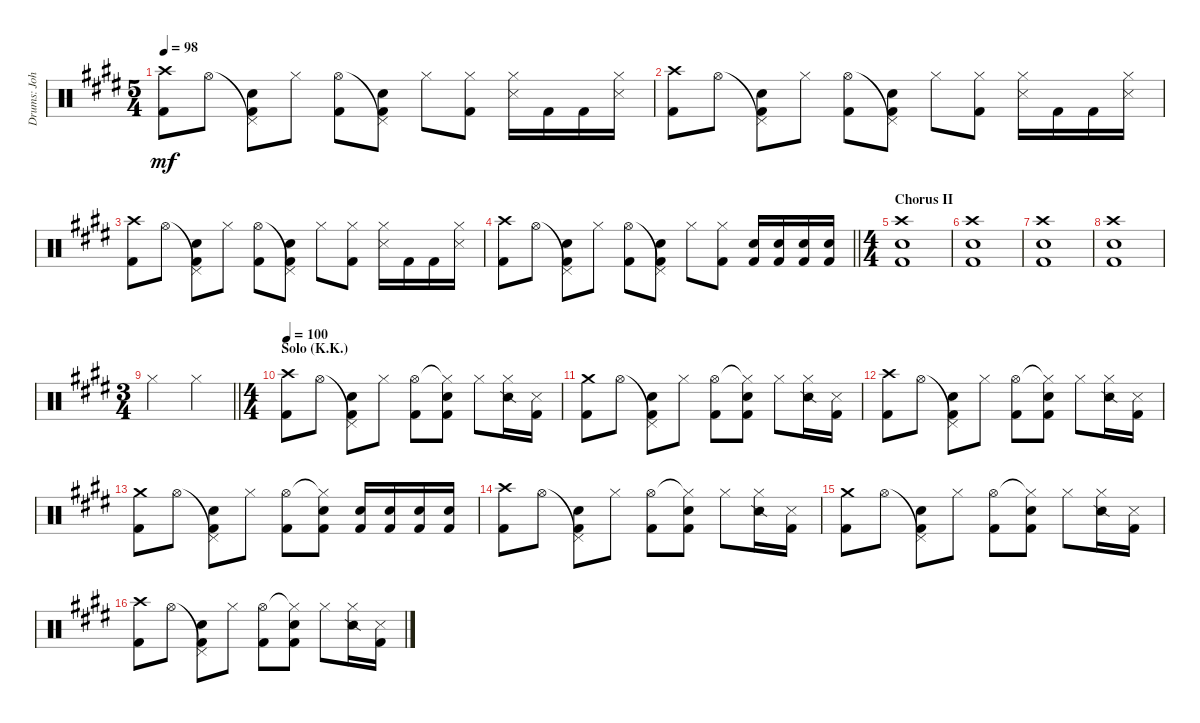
\track ("Drums: John" "Drums: Joh") {instrument percussion}
\staff {score}
\articulation defaults
\ts (5 4)
\tempo 98
\clef neutral
\ks e
("Crash high (hit)" "Kick (hit) 2").8{dy mf} "Hi-Hat (open)".8 ("Pedal Hi-Hat (hit)"{t} "Snare (hit) 2" "Kick (hit) 2").8 "Hi-Hat (closed)".8 ("Hi-Hat (open)" "Kick (hit) 2").8 ("Pedal Hi-Hat (hit)"{t} "Snare (hit) 2" "Kick (hit) 2").8 "Hi-Hat (closed)".8 ("Hi-Hat (closed)" "Kick (hit) 2").8 ("Hi-Hat (closed)" "Snare (side stick) 3").16 "Kick (hit) 2".16 "Kick (hit) 2".16 ("Hi-Hat (closed)" "Snare (side stick) 3").16 |
("Crash high (hit)" "Kick (hit) 2").8 "Hi-Hat (open)".8 ("Pedal Hi-Hat (hit)"{t} "Snare (hit) 2" "Kick (hit) 2").8 "Hi-Hat (closed)".8 ("Hi-Hat (open)" "Kick (hit) 2").8 ("Pedal Hi-Hat (hit)"{t} "Snare (hit) 2" "Kick (hit) 2").8 "Hi-Hat (closed)".8 ("Hi-Hat (closed)" "Kick (hit) 2").8 ("Hi-Hat (closed)" "Snare (side stick) 3").16 "Kick (hit) 2".16 "Kick (hit) 2".16 ("Hi-Hat (closed)" "Snare (side stick) 3").16 |
("Crash high (hit)" "Kick (hit) 2").8 "Hi-Hat (open)".8 ("Pedal Hi-Hat (hit)"{t} "Snare (hit) 2" "Kick (hit) 2").8 "Hi-Hat (closed)".8 ("Hi-Hat (open)" "Kick (hit) 2").8 ("Pedal Hi-Hat (hit)"{t} "Snare (hit) 2" "Kick (hit) 2").8 "Hi-Hat (closed)".8 ("Hi-Hat (closed)" "Kick (hit) 2").8 ("Hi-Hat (closed)" "Snare (side stick) 3").16 "Kick (hit) 2".16 "Kick (hit) 2".16 ("Hi-Hat (closed)" "Snare (side stick) 3").16 |
\barLineRight lightlight
("Crash high (hit)" "Kick (hit) 2").8 "Hi-Hat (open)".8 ("Pedal Hi-Hat (hit)"{t} "Snare (hit) 2" "Kick (hit) 2").8 "Hi-Hat (closed)".8 ("Hi-Hat (open)" "Kick (hit) 2").8 ("Pedal Hi-Hat (hit)"{t} "Snare (hit) 2" "Kick (hit) 2").8 "Hi-Hat (closed)".8 ("Hi-Hat (closed)" "Kick (hit) 2").8 ("Electric Snare (hit)" "Kick (hit) 2").16 ("Electric Snare (hit)" "Kick (hit) 2").16 ("Electric Snare (hit)" "Kick (hit) 2").16 ("Electric Snare (hit)" "Kick (hit) 2").16 |
\ts (4 4)
\section ("" "Chorus II")
("Crash high (hit)" "Snare (hit) 2" "Kick (hit) 2").1 |
("Crash high (hit)" "Snare (hit) 2" "Kick (hit) 2").1 |
("Crash high (hit)" "Snare (hit) 2" "Kick (hit) 2").1 |
("Crash high (hit)" "Snare (hit) 2" "Kick (hit) 2").1 |
\ts (3 4)
\barLineRight lightlight "Hi-Hat (closed)".2 "Hi-Hat (closed)".4
|
\ts (4 4)
\section ("" "Solo (K.K.)")
\tempo 100
("Crash high (hit)" "Kick (hit) 2").8 "Hi-Hat (open)".8 ("Pedal Hi-Hat (hit)"{t} "Snare (hit) 2" "Kick (hit) 2").8 "Hi-Hat (closed)".8 ("Hi-Hat (open)" "Kick (hit) 2").8 ("Hi-Hat (closed)"{t} "Snare (hit) 2" "Kick (hit) 2").8 "Hi-Hat (closed)".8 ("Hi-Hat (closed)" "Snare (side stick) 2").16 ("Kick (hit) 2" "Snare (side stick) 3").16 |
("Crash medium (hit)" "Kick (hit) 2").8 "Hi-Hat (open)".8 ("Pedal Hi-Hat (hit)"{t} "Snare (hit) 2" "Kick (hit) 2").8 "Hi-Hat (closed)".8 ("Hi-Hat (open)" "Kick (hit) 2").8 ("Hi-Hat (closed)"{t} "Snare (hit) 2" "Kick (hit) 2").8 "Hi-Hat (closed)".8 ("Hi-Hat (closed)" "Snare (side stick) 2").16 ("Kick (hit) 2" "Snare (side stick) 3").16 |
("Crash high (hit)" "Kick (hit) 2").8 "Hi-Hat (open)".8 ("Pedal Hi-Hat (hit)"{t} "Snare (hit) 2" "Kick (hit) 2").8 "Hi-Hat (closed)".8 ("Hi-Hat (open)" "Kick (hit) 2").8 ("Hi-Hat (closed)"{t} "Snare (hit) 2" "Kick (hit) 2").8 "Hi-Hat (closed)".8 ("Hi-Hat (closed)" "Snare (side stick) 2").16 ("Kick (hit) 2" "Snare (side stick) 3").16 |
("Crash medium (hit)" "Kick (hit) 2").8 "Hi-Hat (open)".8 ("Pedal Hi-Hat (hit)"{t} "Snare (hit) 2" "Kick (hit) 2").8 "Hi-Hat (closed)".8 ("Hi-Hat (open)" "Kick (hit) 2").8 ("Hi-Hat (closed)"{t} "Snare (hit) 2" "Kick (hit) 2").8 ("Electric Snare (hit)" "Kick (hit) 2").16 ("Electric Snare (hit)" "Kick (hit) 2").16 ("Electric Snare (hit)" "Kick (hit) 2").16 ("Electric Snare (hit)" "Kick (hit) 2").16 |
("Crash high (hit)" "Kick (hit) 2").8 "Hi-Hat (open)".8 ("Pedal Hi-Hat (hit)"{t} "Snare (hit) 2" "Kick (hit) 2").8 "Hi-Hat (closed)".8 ("Hi-Hat (open)" "Kick (hit) 2").8 ("Hi-Hat (closed)"{t} "Snare (hit) 2" "Kick (hit) 2").8 "Hi-Hat (closed)".8 ("Hi-Hat (closed)" "Snare (side stick) 2").16 ("Kick (hit) 2" "Snare (side stick) 3").16 |
("Crash medium (hit)" "Kick (hit) 2").8 "Hi-Hat (open)".8 ("Pedal Hi-Hat (hit)"{t} "Snare (hit) 2" "Kick (hit) 2").8 "Hi-Hat (closed)".8 ("Hi-Hat (open)" "Kick (hit) 2").8 ("Hi-Hat (closed)"{t} "Snare (hit) 2" "Kick (hit) 2").8 "Hi-Hat (closed)".8 ("Hi-Hat (closed)" "Snare (side stick) 2").16 ("Kick (hit) 2" "Snare (side stick) 3").16 |
("Crash high (hit)" "Kick (hit) 2").8 "Hi-Hat (open)".8 ("Pedal Hi-Hat (hit)"{t} "Snare (hit) 2" "Kick (hit) 2").8 "Hi-Hat (closed)".8 ("Hi-Hat (open)" "Kick (hit) 2").8 ("Hi-Hat (closed)"{t} "Snare (hit) 2" "Kick (hit) 2").8 "Hi-Hat (closed)".8 ("Hi-Hat (closed)" "Snare (side stick) 2").16 ("Kick (hit) 2" "Snare (side stick) 3").16
